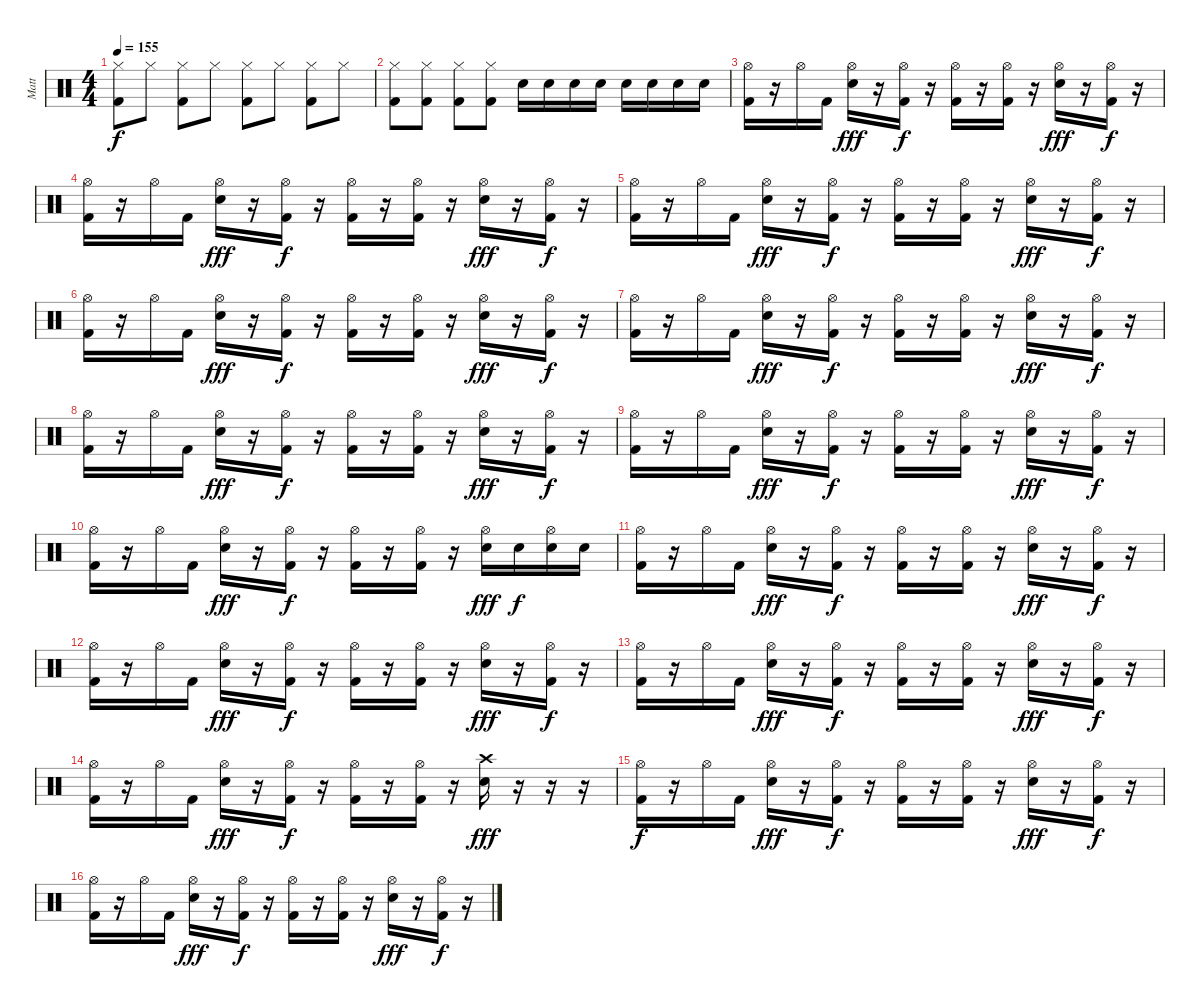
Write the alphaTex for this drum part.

\track ("Matt" "Matt") {instrument percussion}
\staff {score}
\articulation defaults
\ts (4 4)
\tempo 155
\clef neutral
\ks c
("Hi-Hat (closed)" "Kick (hit) 2").8{dy f} "Hi-Hat (closed)".8 ("Hi-Hat (closed)" "Kick (hit) 2").8 "Hi-Hat (closed)".8 ("Hi-Hat (closed)" "Kick (hit) 2").8 "Hi-Hat (closed)".8 ("Hi-Hat (closed)" "Kick (hit) 2").8 "Hi-Hat (closed)".8 |
("Hi-Hat (closed)" "Kick (hit) 2").8 ("Hi-Hat (closed)" "Kick (hit) 2").8 ("Hi-Hat (closed)" "Kick (hit) 2").8 ("Hi-Hat (closed)" "Kick (hit) 2").8 "Electric Snare (hit)".16 "Electric Snare (hit)".16 "Electric Snare (hit)".16 "Electric Snare (hit)".16 "Electric Snare (hit)".16 "Electric Snare (hit)".16 "Electric Snare (hit)".16 "Electric Snare (hit)".16 |
("Hi-Hat (open)" "Kick (hit) 2").16 r.16 "Hi-Hat (open)".16 "Kick (hit) 2".16 ("Hi-Hat (open)" "Snare (hit) 2").16{dy fff} r.16 ("Hi-Hat (open)" "Kick (hit) 2").16{dy f} r.16 ("Hi-Hat (open)" "Kick (hit) 2").16 r.16 ("Hi-Hat (open)" "Kick (hit) 2").16 r.16 ("Hi-Hat (open)" "Snare (hit) 2").16{dy fff} r.16 ("Hi-Hat (open)" "Kick (hit) 2").16{dy f} r.16 |
("Hi-Hat (open)" "Kick (hit) 2").16 r.16 "Hi-Hat (open)".16 "Kick (hit) 2".16 ("Hi-Hat (open)" "Snare (hit) 2").16{dy fff} r.16 ("Hi-Hat (open)" "Kick (hit) 2").16{dy f} r.16 ("Hi-Hat (open)" "Kick (hit) 2").16 r.16 ("Hi-Hat (open)" "Kick (hit) 2").16 r.16 ("Hi-Hat (open)" "Snare (hit) 2").16{dy fff} r.16 ("Hi-Hat (open)" "Kick (hit) 2").16{dy f} r.16 |
("Hi-Hat (open)" "Kick (hit) 2").16 r.16 "Hi-Hat (open)".16 "Kick (hit) 2".16 ("Hi-Hat (open)" "Snare (hit) 2").16{dy fff} r.16 ("Hi-Hat (open)" "Kick (hit) 2").16{dy f} r.16 ("Hi-Hat (open)" "Kick (hit) 2").16 r.16 ("Hi-Hat (open)" "Kick (hit) 2").16 r.16 ("Hi-Hat (open)" "Snare (hit) 2").16{dy fff} r.16 ("Hi-Hat (open)" "Kick (hit) 2").16{dy f} r.16 |
("Hi-Hat (open)" "Kick (hit) 2").16 r.16 "Hi-Hat (open)".16 "Kick (hit) 2".16 ("Hi-Hat (open)" "Snare (hit) 2").16{dy fff} r.16 ("Hi-Hat (open)" "Kick (hit) 2").16{dy f} r.16 ("Hi-Hat (open)" "Kick (hit) 2").16 r.16 ("Hi-Hat (open)" "Kick (hit) 2").16 r.16 ("Hi-Hat (open)" "Snare (hit) 2").16{dy fff} r.16 ("Hi-Hat (open)" "Kick (hit) 2").16{dy f} r.16 |
("Hi-Hat (open)" "Kick (hit) 2").16 r.16 "Hi-Hat (open)".16 "Kick (hit) 2".16 ("Hi-Hat (open)" "Snare (hit) 2").16{dy fff} r.16 ("Hi-Hat (open)" "Kick (hit) 2").16{dy f} r.16 ("Hi-Hat (open)" "Kick (hit) 2").16 r.16 ("Hi-Hat (open)" "Kick (hit) 2").16 r.16 ("Hi-Hat (open)" "Snare (hit) 2").16{dy fff} r.16 ("Hi-Hat (open)" "Kick (hit) 2").16{dy f} r.16 |
("Hi-Hat (open)" "Kick (hit) 2").16 r.16 "Hi-Hat (open)".16 "Kick (hit) 2".16 ("Hi-Hat (open)" "Snare (hit) 2").16{dy fff} r.16 ("Hi-Hat (open)" "Kick (hit) 2").16{dy f} r.16 ("Hi-Hat (open)" "Kick (hit) 2").16 r.16 ("Hi-Hat (open)" "Kick (hit) 2").16 r.16 ("Hi-Hat (open)" "Snare (hit) 2").16{dy fff} r.16 ("Hi-Hat (open)" "Kick (hit) 2").16{dy f} r.16 |
("Hi-Hat (open)" "Kick (hit) 2").16 r.16 "Hi-Hat (open)".16 "Kick (hit) 2".16 ("Hi-Hat (open)" "Snare (hit) 2").16{dy fff} r.16 ("Hi-Hat (open)" "Kick (hit) 2").16{dy f} r.16 ("Hi-Hat (open)" "Kick (hit) 2").16 r.16 ("Hi-Hat (open)" "Kick (hit) 2").16 r.16 ("Hi-Hat (open)" "Snare (hit) 2").16{dy fff} r.16 ("Hi-Hat (open)" "Kick (hit) 2").16{dy f} r.16 |
("Hi-Hat (open)" "Kick (hit) 2").16 r.16 "Hi-Hat (open)".16 "Kick (hit) 2".16 ("Hi-Hat (open)" "Snare (hit) 2").16{dy fff} r.16 ("Hi-Hat (open)" "Kick (hit) 2").16{dy f} r.16 ("Hi-Hat (open)" "Kick (hit) 2").16 r.16 ("Hi-Hat (open)" "Kick (hit) 2").16 r.16 ("Hi-Hat (open)" "Snare (hit) 2").16{dy fff} "Snare (hit) 2".16{dy f} ("Hi-Hat (open)" "Snare (hit) 2").16 "Snare (hit) 2".16 |
("Hi-Hat (open)" "Kick (hit) 2").16 r.16 "Hi-Hat (open)".16 "Kick (hit) 2".16 ("Hi-Hat (open)" "Snare (hit) 2").16{dy fff} r.16 ("Hi-Hat (open)" "Kick (hit) 2").16{dy f} r.16 ("Hi-Hat (open)" "Kick (hit) 2").16 r.16 ("Hi-Hat (open)" "Kick (hit) 2").16 r.16 ("Hi-Hat (open)" "Snare (hit) 2").16{dy fff} r.16 ("Hi-Hat (open)" "Kick (hit) 2").16{dy f} r.16 |
("Hi-Hat (open)" "Kick (hit) 2").16 r.16 "Hi-Hat (open)".16 "Kick (hit) 2".16 ("Hi-Hat (open)" "Snare (hit) 2").16{dy fff} r.16 ("Hi-Hat (open)" "Kick (hit) 2").16{dy f} r.16 ("Hi-Hat (open)" "Kick (hit) 2").16 r.16 ("Hi-Hat (open)" "Kick (hit) 2").16 r.16 ("Hi-Hat (open)" "Snare (hit) 2").16{dy fff} r.16 ("Hi-Hat (open)" "Kick (hit) 2").16{dy f} r.16 |
("Hi-Hat (open)" "Kick (hit) 2").16 r.16 "Hi-Hat (open)".16 "Kick (hit) 2".16 ("Hi-Hat (open)" "Snare (hit) 2").16{dy fff} r.16 ("Hi-Hat (open)" "Kick (hit) 2").16{dy f} r.16 ("Hi-Hat (open)" "Kick (hit) 2").16 r.16 ("Hi-Hat (open)" "Kick (hit) 2").16 r.16 ("Hi-Hat (open)" "Snare (hit) 2").16{dy fff} r.16 ("Hi-Hat (open)" "Kick (hit) 2").16{dy f} r.16 |
("Hi-Hat (open)" "Kick (hit) 2").16 r.16 "Hi-Hat (open)".16 "Kick (hit) 2".16 ("Hi-Hat (open)" "Snare (hit) 2").16{dy fff} r.16 ("Hi-Hat (open)" "Kick (hit) 2").16{dy f} r.16 ("Hi-Hat (open)" "Kick (hit) 2").16 r.16 ("Hi-Hat (open)" "Kick (hit) 2").16 r.16 ("Crash high (hit)" "Snare (hit) 2").16{dy fff} r.16 r.16 r.16 |
("Hi-Hat (open)" "Kick (hit) 2").16{dy f} r.16 "Hi-Hat (open)".16 "Kick (hit) 2".16 ("Hi-Hat (open)" "Snare (hit) 2").16{dy fff} r.16 ("Hi-Hat (open)" "Kick (hit) 2").16{dy f} r.16 ("Hi-Hat (open)" "Kick (hit) 2").16 r.16 ("Hi-Hat (open)" "Kick (hit) 2").16 r.16 ("Hi-Hat (open)" "Snare (hit) 2").16{dy fff} r.16 ("Hi-Hat (open)" "Kick (hit) 2").16{dy f} r.16 |
("Hi-Hat (open)" "Kick (hit) 2").16 r.16 "Hi-Hat (open)".16 "Kick (hit) 2".16 ("Hi-Hat (open)" "Snare (hit) 2").16{dy fff} r.16 ("Hi-Hat (open)" "Kick (hit) 2").16{dy f} r.16 ("Hi-Hat (open)" "Kick (hit) 2").16 r.16 ("Hi-Hat (open)" "Kick (hit) 2").16 r.16 ("Hi-Hat (open)" "Snare (hit) 2").16{dy fff} r.16 ("Hi-Hat (open)" "Kick (hit) 2").16{dy f} r.16
